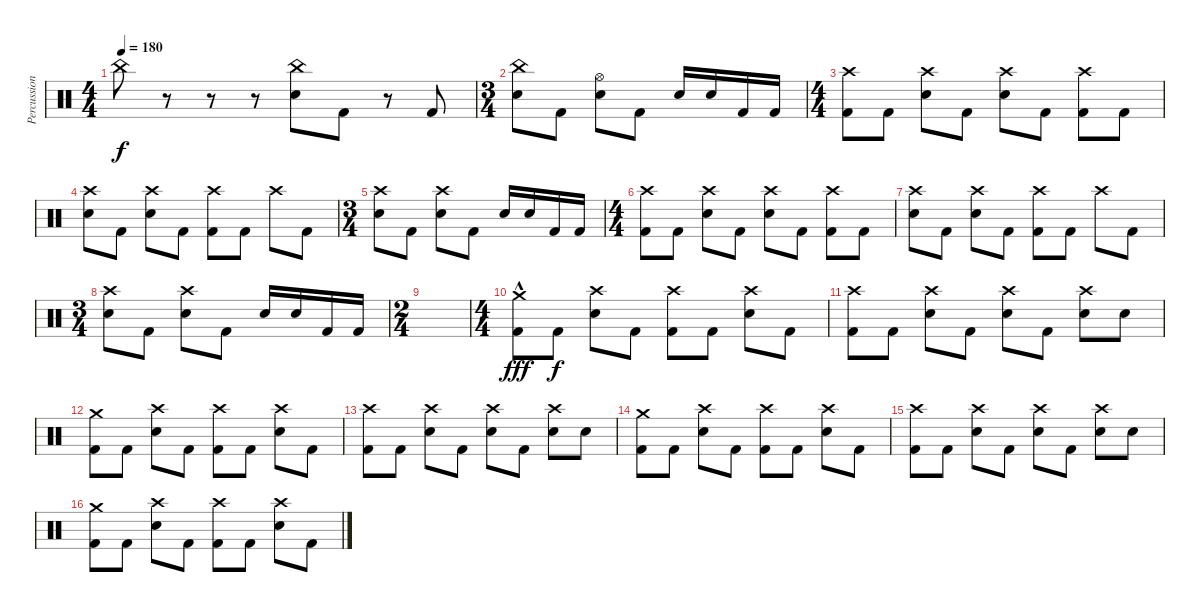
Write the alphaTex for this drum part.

\track ("Percussion" "Percussion") {instrument percussion}
\staff {score}
\articulation defaults
\ts (4 4)
\tempo 180
\clef neutral
\ks c "China (hit)".8{dy f}
r.8 r.8 r.8 ("China (hit)" "Electric Snare (hit)").8 "Kick (hit) 2".8 r.8 "Kick (hit) 2".8 |
\ts (3 4)
("China (hit)" "Electric Snare (hit)").8 "Kick (hit) 2".8 ("Hi-Hat (open)" "Electric Snare (hit)").8 "Kick (hit) 2".8 "Electric Snare (hit)".16 "Electric Snare (hit)".16 "Kick (hit) 2".16 "Kick (hit) 2".16 |
\ts (4 4)
("Crash high (hit)" "Kick (hit) 2").8 "Kick (hit) 2".8 ("Crash high (hit)" "Electric Snare (hit)").8 "Kick (hit) 2".8 ("Crash high (hit)" "Electric Snare (hit)").8 "Kick (hit) 2".8 ("Crash high (hit)" "Kick (hit) 2").8 "Kick (hit) 2".8 |
("Crash high (hit)" "Electric Snare (hit)").8 "Kick (hit) 2".8 ("Crash high (hit)" "Electric Snare (hit)").8 "Kick (hit) 2".8 ("Crash high (hit)" "Kick (hit) 2").8 "Kick (hit) 2".8 "Crash high (hit)".8 "Kick (hit) 2".8 |
\ts (3 4)
("Crash high (hit)" "Electric Snare (hit)").8 "Kick (hit) 2".8 ("Crash high (hit)" "Electric Snare (hit)").8 "Kick (hit) 2".8 "Electric Snare (hit)".16 "Electric Snare (hit)".16 "Kick (hit) 2".16 "Kick (hit) 2".16 |
\ts (4 4)
("Crash high (hit)" "Kick (hit) 2").8 "Kick (hit) 2".8 ("Crash high (hit)" "Electric Snare (hit)").8 "Kick (hit) 2".8 ("Crash high (hit)" "Electric Snare (hit)").8 "Kick (hit) 2".8 ("Crash high (hit)" "Kick (hit) 2").8 "Kick (hit) 2".8 |
("Crash high (hit)" "Electric Snare (hit)").8 "Kick (hit) 2".8 ("Crash high (hit)" "Electric Snare (hit)").8 "Kick (hit) 2".8 ("Crash high (hit)" "Kick (hit) 2").8 "Kick (hit) 2".8 "Crash high (hit)".8 "Kick (hit) 2".8 |
\ts (3 4)
("Crash high (hit)" "Electric Snare (hit)").8 "Kick (hit) 2".8 ("Crash high (hit)" "Electric Snare (hit)").8 "Kick (hit) 2".8 "Electric Snare (hit)".16 "Electric Snare (hit)".16 "Kick (hit) 2".16 "Kick (hit) 2".16 |
\ts (2 4)
|
\ts (4 4)
("Crash medium (hit)"{hac} "Kick (hit) 2").8{dy fff} "Kick (hit) 2".8{dy f} ("Crash high (hit)" "Electric Snare (hit)").8 "Kick (hit) 2".8 ("Crash high (hit)" "Kick (hit) 2").8 "Kick (hit) 2".8 ("Crash high (hit)" "Electric Snare (hit)").8 "Kick (hit) 2".8 |
("Crash high (hit)" "Kick (hit) 2").8 "Kick (hit) 2".8 ("Crash high (hit)" "Electric Snare (hit)").8 "Kick (hit) 2".8 ("Crash high (hit)" "Electric Snare (hit)").8 "Kick (hit) 2".8 ("Crash high (hit)" "Electric Snare (hit)").8 "Electric Snare (hit)".8 |
("Crash medium (hit)" "Kick (hit) 2").8 "Kick (hit) 2".8 ("Crash high (hit)" "Electric Snare (hit)").8 "Kick (hit) 2".8 ("Crash high (hit)" "Kick (hit) 2").8 "Kick (hit) 2".8 ("Crash high (hit)" "Electric Snare (hit)").8 "Kick (hit) 2".8 |
("Crash high (hit)" "Kick (hit) 2").8 "Kick (hit) 2".8 ("Crash high (hit)" "Electric Snare (hit)").8 "Kick (hit) 2".8 ("Crash high (hit)" "Electric Snare (hit)").8 "Kick (hit) 2".8 ("Crash high (hit)" "Electric Snare (hit)").8 "Electric Snare (hit)".8 |
("Crash medium (hit)" "Kick (hit) 2").8 "Kick (hit) 2".8 ("Crash high (hit)" "Electric Snare (hit)").8 "Kick (hit) 2".8 ("Crash high (hit)" "Kick (hit) 2").8 "Kick (hit) 2".8 ("Crash high (hit)" "Electric Snare (hit)").8 "Kick (hit) 2".8 |
("Crash high (hit)" "Kick (hit) 2").8 "Kick (hit) 2".8 ("Crash high (hit)" "Electric Snare (hit)").8 "Kick (hit) 2".8 ("Crash high (hit)" "Electric Snare (hit)").8 "Kick (hit) 2".8 ("Crash high (hit)" "Electric Snare (hit)").8 "Electric Snare (hit)".8 |
("Crash medium (hit)" "Kick (hit) 2").8 "Kick (hit) 2".8 ("Crash high (hit)" "Electric Snare (hit)").8 "Kick (hit) 2".8 ("Crash high (hit)" "Kick (hit) 2").8 "Kick (hit) 2".8 ("Crash high (hit)" "Electric Snare (hit)").8 "Kick (hit) 2".8
